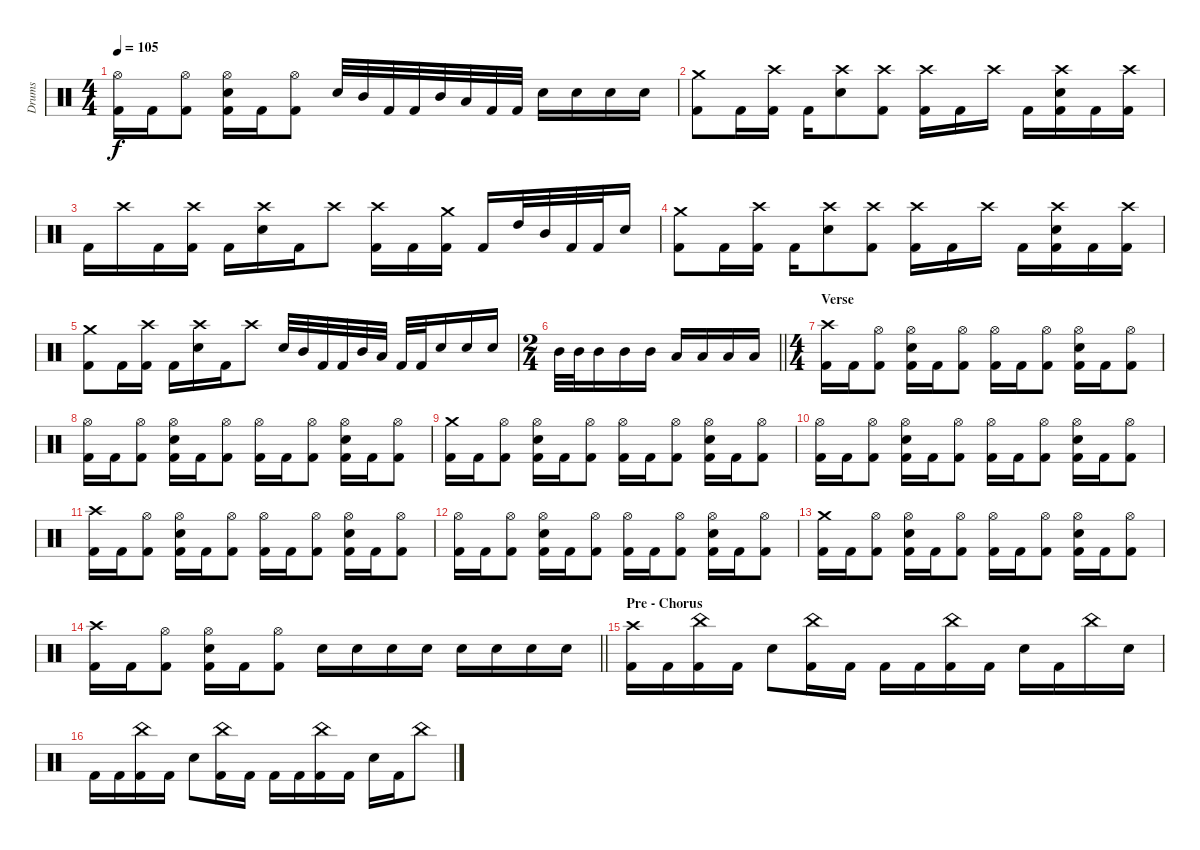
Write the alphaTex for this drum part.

\track ("Drums" "Drums") {instrument percussion}
\staff {score}
\articulation defaults
\ts (4 4)
\tempo 105
\clef neutral
\ks c
("Hi-Hat (open)" "Kick (hit) 2").16{dy f} "Kick (hit) 2".16 ("Hi-Hat (open)" "Kick (hit) 2").8 ("Hi-Hat (open)" "Electric Snare (hit)" "Kick (hit) 2").16 "Kick (hit) 2".16 ("Hi-Hat (open)" "Kick (hit) 2").8 "Electric Snare (hit)".32 "Mid Tom (hit)".32 "Kick (hit) 2".32 "Kick (hit) 2".32 "Mid Tom (hit)".32 "Low Tom (hit)".32 "Kick (hit) 2".32 "Kick (hit) 2".32 "Electric Snare (hit)".16 "Electric Snare (hit)".16 "Electric Snare (hit)".16 "Electric Snare (hit)".16 |
("Crash medium (hit)" "Kick (hit) 2").8 "Kick (hit) 2".16 ("Crash high (hit)" "Kick (hit) 2").16 "Kick (hit) 2".16 ("Crash high (hit)" "Electric Snare (hit)").8 ("Crash high (hit)" "Kick (hit) 2").8 ("Crash high (hit)" "Kick (hit) 2").16 "Kick (hit) 2".16 "Crash high (hit)".16 "Kick (hit) 2".16 ("Crash high (hit)" "Electric Snare (hit)" "Kick (hit) 2").16 "Kick (hit) 2".16 ("Crash high (hit)" "Kick (hit) 2").16 |
"Kick (hit) 2".16 "Crash high (hit)".16 "Kick (hit) 2".16 ("Crash high (hit)" "Kick (hit) 2").16 "Kick (hit) 2".16 ("Crash high (hit)" "Electric Snare (hit)").16 "Kick (hit) 2".16 "Crash high (hit)".8 ("Crash high (hit)" "Kick (hit) 2").16 "Kick (hit) 2".16 ("Crash medium (hit)" "Kick (hit) 2").16 "Kick (hit) 2".16 "High Tom (hit)".32 "Mid Tom (hit)".32 "Kick (hit) 2".32 "Kick (hit) 2".32 "Electric Snare (hit)".16 |
("Crash medium (hit)" "Kick (hit) 2").8 "Kick (hit) 2".16 ("Crash high (hit)" "Kick (hit) 2").16 "Kick (hit) 2".16 ("Crash high (hit)" "Electric Snare (hit)").8 ("Crash high (hit)" "Kick (hit) 2").8 ("Crash high (hit)" "Kick (hit) 2").16 "Kick (hit) 2".16 "Crash high (hit)".16 "Kick (hit) 2".16 ("Crash high (hit)" "Electric Snare (hit)" "Kick (hit) 2").16 "Kick (hit) 2".16 ("Crash high (hit)" "Kick (hit) 2").16 |
("Crash medium (hit)" "Kick (hit) 2").8 "Kick (hit) 2".16 ("Crash high (hit)" "Kick (hit) 2").16 "Kick (hit) 2".16 ("Crash high (hit)" "Electric Snare (hit)").16 "Kick (hit) 2".16 "Crash high (hit)".8 "Electric Snare (hit)".32 "Mid Tom (hit)".32 "Kick (hit) 2".32 "Kick (hit) 2".32 "Mid Tom (hit)".32 "Low Tom (hit)".32 "Kick (hit) 2".32 "Kick (hit) 2".32 "Electric Snare (hit)".16 "Electric Snare (hit)".16 "Electric Snare (hit)".16 |
\ts (2 4)
\barLineRight lightlight "Mid Tom (hit)".32 "Mid Tom (hit)".32 "Mid Tom (hit)".16 "Mid Tom (hit)".16 "Mid Tom (hit)".16 "Low Tom (hit)".16 "Low Tom (hit)".16 "Low Tom (hit)".16 "Low Tom (hit)".16
|
\ts (4 4)
\section ("" "Verse")
("Crash high (hit)" "Kick (hit) 2").16 "Kick (hit) 2".16 ("Hi-Hat (open)" "Kick (hit) 2").8 ("Hi-Hat (open)" "Electric Snare (hit)" "Kick (hit) 2").16 "Kick (hit) 2".16 ("Hi-Hat (open)" "Kick (hit) 2").8 ("Hi-Hat (open)" "Kick (hit) 2").16 "Kick (hit) 2".16 ("Hi-Hat (open)" "Kick (hit) 2").8 ("Hi-Hat (open)" "Electric Snare (hit)" "Kick (hit) 2").16 "Kick (hit) 2".16 ("Hi-Hat (open)" "Kick (hit) 2").8 |
("Hi-Hat (open)" "Kick (hit) 2").16 "Kick (hit) 2".16 ("Hi-Hat (open)" "Kick (hit) 2").8 ("Hi-Hat (open)" "Electric Snare (hit)" "Kick (hit) 2").16 "Kick (hit) 2".16 ("Hi-Hat (open)" "Kick (hit) 2").8 ("Hi-Hat (open)" "Kick (hit) 2").16 "Kick (hit) 2".16 ("Hi-Hat (open)" "Kick (hit) 2").8 ("Hi-Hat (open)" "Electric Snare (hit)" "Kick (hit) 2").16 "Kick (hit) 2".16 ("Hi-Hat (open)" "Kick (hit) 2").8 |
("Crash medium (hit)" "Kick (hit) 2").16 "Kick (hit) 2".16 ("Hi-Hat (open)" "Kick (hit) 2").8 ("Hi-Hat (open)" "Electric Snare (hit)" "Kick (hit) 2").16 "Kick (hit) 2".16 ("Hi-Hat (open)" "Kick (hit) 2").8 ("Hi-Hat (open)" "Kick (hit) 2").16 "Kick (hit) 2".16 ("Hi-Hat (open)" "Kick (hit) 2").8 ("Hi-Hat (open)" "Electric Snare (hit)" "Kick (hit) 2").16 "Kick (hit) 2".16 ("Hi-Hat (open)" "Kick (hit) 2").8 |
("Hi-Hat (open)" "Kick (hit) 2").16 "Kick (hit) 2".16 ("Hi-Hat (open)" "Kick (hit) 2").8 ("Hi-Hat (open)" "Electric Snare (hit)" "Kick (hit) 2").16 "Kick (hit) 2".16 ("Hi-Hat (open)" "Kick (hit) 2").8 ("Hi-Hat (open)" "Kick (hit) 2").16 "Kick (hit) 2".16 ("Hi-Hat (open)" "Kick (hit) 2").8 ("Hi-Hat (open)" "Electric Snare (hit)" "Kick (hit) 2").16 "Kick (hit) 2".16 ("Hi-Hat (open)" "Kick (hit) 2").8 |
("Crash high (hit)" "Kick (hit) 2").16 "Kick (hit) 2".16 ("Hi-Hat (open)" "Kick (hit) 2").8 ("Hi-Hat (open)" "Electric Snare (hit)" "Kick (hit) 2").16 "Kick (hit) 2".16 ("Hi-Hat (open)" "Kick (hit) 2").8 ("Hi-Hat (open)" "Kick (hit) 2").16 "Kick (hit) 2".16 ("Hi-Hat (open)" "Kick (hit) 2").8 ("Hi-Hat (open)" "Electric Snare (hit)" "Kick (hit) 2").16 "Kick (hit) 2".16 ("Hi-Hat (open)" "Kick (hit) 2").8 |
("Hi-Hat (open)" "Kick (hit) 2").16 "Kick (hit) 2".16 ("Hi-Hat (open)" "Kick (hit) 2").8 ("Hi-Hat (open)" "Electric Snare (hit)" "Kick (hit) 2").16 "Kick (hit) 2".16 ("Hi-Hat (open)" "Kick (hit) 2").8 ("Hi-Hat (open)" "Kick (hit) 2").16 "Kick (hit) 2".16 ("Hi-Hat (open)" "Kick (hit) 2").8 ("Hi-Hat (open)" "Electric Snare (hit)" "Kick (hit) 2").16 "Kick (hit) 2".16 ("Hi-Hat (open)" "Kick (hit) 2").8 |
("Crash medium (hit)" "Kick (hit) 2").16 "Kick (hit) 2".16 ("Hi-Hat (open)" "Kick (hit) 2").8 ("Hi-Hat (open)" "Electric Snare (hit)" "Kick (hit) 2").16 "Kick (hit) 2".16 ("Hi-Hat (open)" "Kick (hit) 2").8 ("Hi-Hat (open)" "Kick (hit) 2").16 "Kick (hit) 2".16 ("Hi-Hat (open)" "Kick (hit) 2").8 ("Hi-Hat (open)" "Electric Snare (hit)" "Kick (hit) 2").16 "Kick (hit) 2".16 ("Hi-Hat (open)" "Kick (hit) 2").8 |
\barLineRight lightlight
("Crash high (hit)" "Kick (hit) 2").16 "Kick (hit) 2".16 ("Hi-Hat (open)" "Kick (hit) 2").8 ("Hi-Hat (open)" "Electric Snare (hit)" "Kick (hit) 2").16 "Kick (hit) 2".16 ("Hi-Hat (open)" "Kick (hit) 2").8 "Electric Snare (hit)".16 "Electric Snare (hit)".16 "Electric Snare (hit)".16 "Electric Snare (hit)".16 "Electric Snare (hit)".16 "Electric Snare (hit)".16 "Electric Snare (hit)".16 "Electric Snare (hit)".16 |
\section ("" "Pre - Chorus")
("Crash high (hit)" "Kick (hit) 2").16 "Kick (hit) 2".16 ("China (hit)" "Kick (hit) 2").16 "Kick (hit) 2".16 "Electric Snare (hit)".8 ("China (hit)" "Kick (hit) 2").16 "Kick (hit) 2".16 "Kick (hit) 2".16 "Kick (hit) 2".16 ("China (hit)" "Kick (hit) 2").16 "Kick (hit) 2".16 "Electric Snare (hit)".16 "Kick (hit) 2".16 "China (hit)".16 "Electric Snare (hit)".16 |
"Kick (hit) 2".16 "Kick (hit) 2".16 ("China (hit)" "Kick (hit) 2").16 "Kick (hit) 2".16 "Electric Snare (hit)".8 ("China (hit)" "Kick (hit) 2").16 "Kick (hit) 2".16 "Kick (hit) 2".16 "Kick (hit) 2".16 ("China (hit)" "Kick (hit) 2").16 "Kick (hit) 2".16 "Electric Snare (hit)".16 "Kick (hit) 2".16 "China (hit)".8
